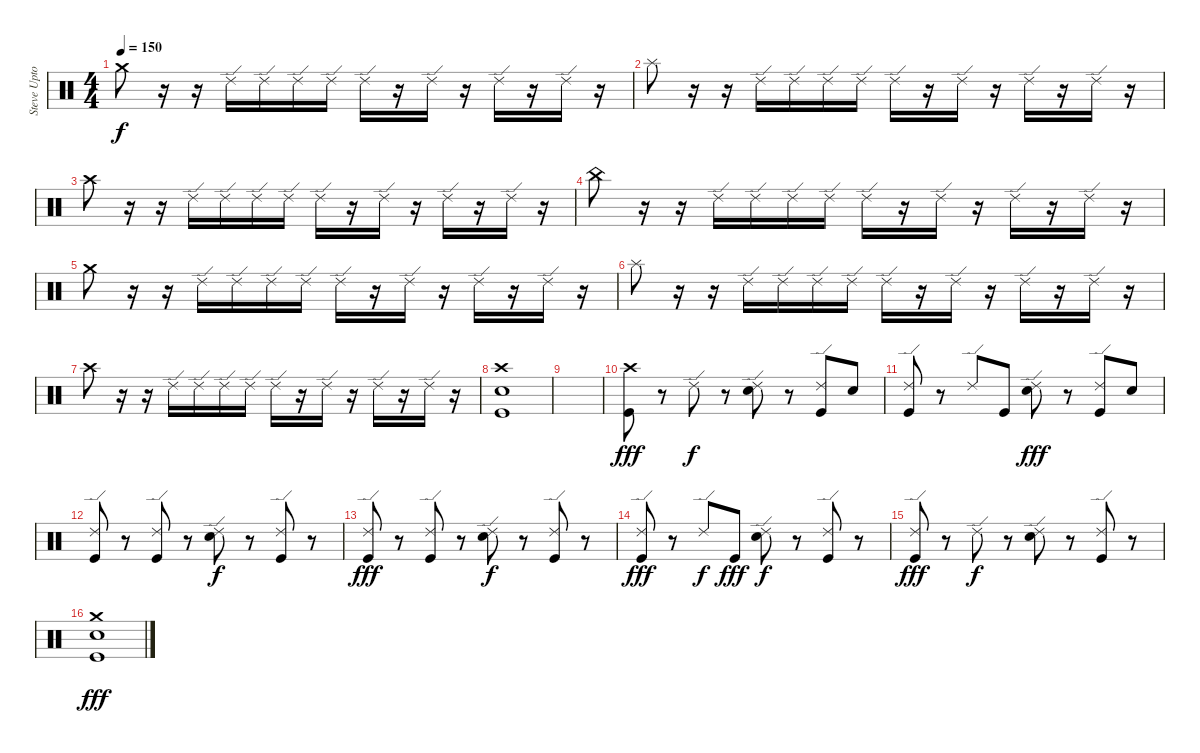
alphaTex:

\track ("Steve Upton (drums)" "Steve Upto") {instrument percussion}
\staff {score}
\articulation defaults
\ts (4 4)
\tempo 150
\clef neutral
\ks c "Crash medium (hit)".8{dy f}
r.16 r.16 "Ride (edge) 2".16 "Ride (edge) 2".16 "Ride (edge) 2".16 "Ride (edge) 2".16 "Ride (edge) 2".16 r.16 "Ride (edge) 2".16 r.16 "Ride (edge) 2".16 r.16 "Ride (edge) 2".16 r.16 |
"Splash (hit)".8 r.16 r.16 "Ride (edge) 2".16 "Ride (edge) 2".16 "Ride (edge) 2".16 "Ride (edge) 2".16 "Ride (edge) 2".16 r.16 "Ride (edge) 2".16 r.16 "Ride (edge) 2".16 r.16 "Ride (edge) 2".16 r.16 |
"Crash high (hit)".8 r.16 r.16 "Ride (edge) 2".16 "Ride (edge) 2".16 "Ride (edge) 2".16 "Ride (edge) 2".16 "Ride (edge) 2".16 r.16 "Ride (edge) 2".16 r.16 "Ride (edge) 2".16 r.16 "Ride (edge) 2".16 r.16 |
"China (hit)".8 r.16 r.16 "Ride (edge) 2".16 "Ride (edge) 2".16 "Ride (edge) 2".16 "Ride (edge) 2".16 "Ride (edge) 2".16 r.16 "Ride (edge) 2".16 r.16 "Ride (edge) 2".16 r.16 "Ride (edge) 2".16 r.16 |
"Crash medium (hit)".8 r.16 r.16 "Ride (edge) 2".16 "Ride (edge) 2".16 "Ride (edge) 2".16 "Ride (edge) 2".16 "Ride (edge) 2".16 r.16 "Ride (edge) 2".16 r.16 "Ride (edge) 2".16 r.16 "Ride (edge) 2".16 r.16 |
"Splash (hit)".8 r.16 r.16 "Ride (edge) 2".16 "Ride (edge) 2".16 "Ride (edge) 2".16 "Ride (edge) 2".16 "Ride (edge) 2".16 r.16 "Ride (edge) 2".16 r.16 "Ride (edge) 2".16 r.16 "Ride (edge) 2".16 r.16 |
"Crash high (hit)".8 r.16 r.16 "Ride (edge) 2".16 "Ride (edge) 2".16 "Ride (edge) 2".16 "Ride (edge) 2".16 "Ride (edge) 2".16 r.16 "Ride (edge) 2".16 r.16 "Ride (edge) 2".16 r.16 "Ride (edge) 2".16 r.16 |
("Crash high (hit)" "Electric Snare (hit)" "Kick (hit)").1 |
|
("Crash high (hit)" "Kick (hit)").8{dy fff} r.8 "Ride (edge) 2".8{dy f} r.8 ("Ride (edge) 2" "Electric Snare (hit)").8 r.8 ("Ride (edge) 2" "Kick (hit)").8 "Electric Snare (hit)".8 |
("Ride (edge) 2" "Kick (hit)").8 r.8 "Ride (edge) 2".8 "Kick (hit)".8 ("Ride (edge) 2" "Electric Snare (hit)").8{dy fff} r.8 ("Ride (edge) 2" "Kick (hit)").8 "Electric Snare (hit)".8 |
("Ride (edge) 2" "Kick (hit)").8 r.8 ("Ride (edge) 2" "Kick (hit)").8 r.8 ("Ride (edge) 2" "Electric Snare (hit)").8{dy f} r.8 ("Ride (edge) 2" "Kick (hit)").8 r.8 |
("Ride (edge) 2" "Kick (hit)").8{dy fff} r.8 ("Ride (edge) 2" "Kick (hit)").8 r.8 ("Ride (edge) 2" "Electric Snare (hit)").8{dy f} r.8 ("Ride (edge) 2" "Kick (hit)").8 r.8 |
("Ride (edge) 2" "Kick (hit)").8{dy fff} r.8 "Ride (edge) 2".8{dy f} "Kick (hit)".8{dy fff} ("Ride (edge) 2" "Electric Snare (hit)").8{dy f} r.8 ("Ride (edge) 2" "Kick (hit)").8 r.8 |
("Ride (edge) 2" "Kick (hit)").8{dy fff} r.8 "Ride (edge) 2".8{dy f} r.8 ("Ride (edge) 2" "Electric Snare (hit)").8 r.8 ("Ride (edge) 2" "Kick (hit)").8 r.8 |
("Crash medium (hit)" "Electric Snare (hit)" "Kick (hit)").1{dy fff}
